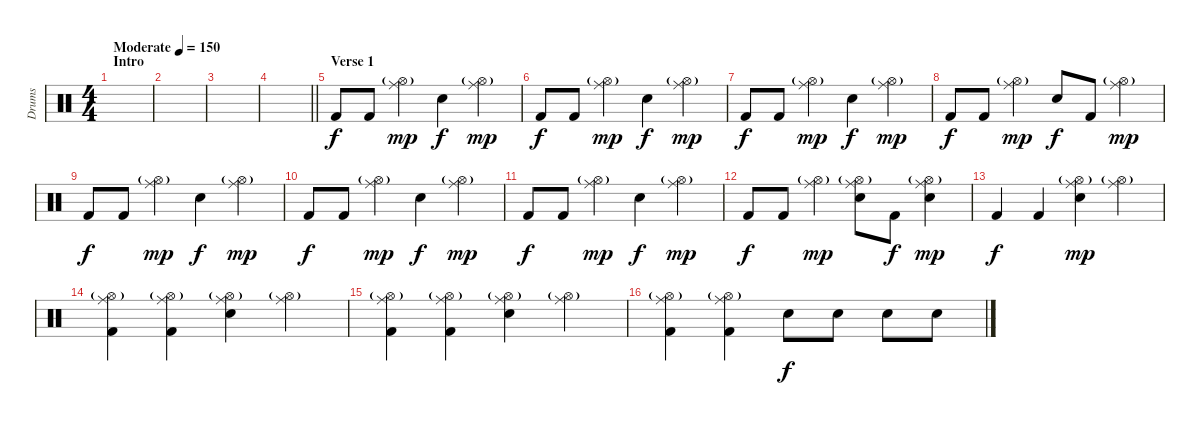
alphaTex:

\track ("Drums" "Drums") {instrument percussion bank 1}
\staff {score}
\articulation defaults
\ts (4 4)
\section ("" "Intro")
\tempo (150 "Moderate")
\clef neutral
\ks c
|
|
|
\barLineRight lightlight
|
\section ("" "Verse 1")
"Kick (hit) 2".8 "Kick (hit) 2".8 ("Ride (middle)" "Hi-Hat (open)"{g}).4{dy mp} "Snare (hit) 2".4{dy f} ("Ride (middle)" "Hi-Hat (open)"{g}).4{dy mp} |
"Kick (hit) 2".8{dy f} "Kick (hit) 2".8 ("Ride (middle)" "Hi-Hat (open)"{g}).4{dy mp} "Snare (hit) 2".4{dy f} ("Ride (middle)" "Hi-Hat (open)"{g}).4{dy mp} |
"Kick (hit) 2".8{dy f} "Kick (hit) 2".8 ("Ride (middle)" "Hi-Hat (open)"{g}).4{dy mp} "Snare (hit) 2".4{dy f} ("Ride (middle)" "Hi-Hat (open)"{g}).4{dy mp} |
"Kick (hit) 2".8{dy f} "Kick (hit) 2".8 ("Ride (middle)" "Hi-Hat (open)"{g}).4{dy mp} "Snare (hit) 2".8{dy f} "Kick (hit) 2".8 ("Ride (middle)" "Hi-Hat (open)"{g}).4{dy mp} |
"Kick (hit) 2".8{dy f} "Kick (hit) 2".8 ("Ride (middle)" "Hi-Hat (open)"{g}).4{dy mp} "Snare (hit) 2".4{dy f} ("Ride (middle)" "Hi-Hat (open)"{g}).4{dy mp} |
"Kick (hit) 2".8{dy f} "Kick (hit) 2".8 ("Ride (middle)" "Hi-Hat (open)"{g}).4{dy mp} "Snare (hit) 2".4{dy f} ("Ride (middle)" "Hi-Hat (open)"{g}).4{dy mp} |
"Kick (hit) 2".8{dy f} "Kick (hit) 2".8 ("Ride (middle)" "Hi-Hat (open)"{g}).4{dy mp} "Snare (hit) 2".4{dy f} ("Ride (middle)" "Hi-Hat (open)"{g}).4{dy mp} |
"Kick (hit) 2".8{dy f} "Kick (hit) 2".8 ("Ride (middle)" "Hi-Hat (open)"{g}).4{dy mp} ("Ride (middle)" "Snare (hit) 2" "Hi-Hat (open)"{g}).8 "Kick (hit) 2".8{dy f} ("Ride (middle)" "Snare (hit) 2" "Hi-Hat (open)"{g}).4{dy mp} |
"Kick (hit) 2".4{dy f} "Kick (hit) 2".4 ("Ride (middle)" "Snare (hit) 2" "Hi-Hat (open)"{g}).4{dy mp} ("Ride (middle)" "Hi-Hat (open)"{g}).4 |
("Ride (middle)" "Kick (hit) 2" "Hi-Hat (open)"{g}).4 ("Ride (middle)" "Kick (hit) 2" "Hi-Hat (open)"{g}).4 ("Ride (middle)" "Snare (hit) 2" "Hi-Hat (open)"{g}).4 ("Ride (middle)" "Hi-Hat (open)"{g}).4 |
("Ride (middle)" "Kick (hit) 2" "Hi-Hat (open)"{g}).4 ("Ride (middle)" "Kick (hit) 2" "Hi-Hat (open)"{g}).4 ("Ride (middle)" "Snare (hit) 2" "Hi-Hat (open)"{g}).4 ("Ride (middle)" "Hi-Hat (open)"{g}).4 |
("Ride (middle)" "Kick (hit) 2" "Hi-Hat (open)"{g}).4 ("Ride (middle)" "Kick (hit) 2" "Hi-Hat (open)"{g}).4 "Snare (hit) 2".8{dy f} "Snare (hit) 2".8 "Snare (hit) 2".8 "Snare (hit) 2".8
